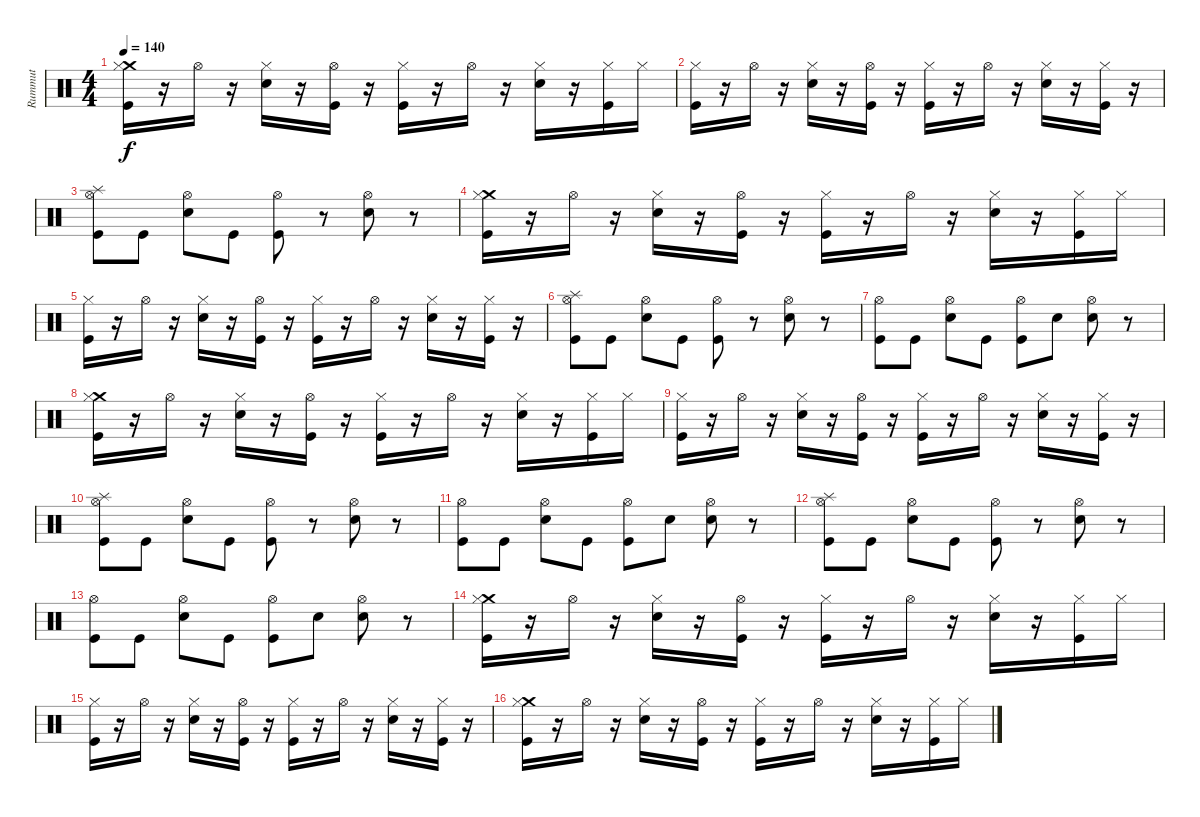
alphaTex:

\track ("Rummut" "Rummut") {instrument percussion}
\staff {score}
\articulation defaults
\ts (4 4)
\tempo 140
\clef neutral
\ks c
("Crash medium (hit)" "Hi-Hat (closed)" "Kick (hit)").16{dy f} r.16 "Hi-Hat (open)".16 r.16 ("Hi-Hat (closed)" "Snare (hit) 2").16 r.16 ("Hi-Hat (open)" "Kick (hit)").16 r.16 ("Hi-Hat (closed)" "Kick (hit)").16 r.16 "Hi-Hat (open)".16 r.16 ("Hi-Hat (closed)" "Snare (hit) 2").16 r.16 ("Hi-Hat (closed)" "Kick (hit)").16 "Hi-Hat (closed)".16 |
("Hi-Hat (closed)" "Kick (hit)").16 r.16 "Hi-Hat (open)".16 r.16 ("Hi-Hat (closed)" "Snare (hit) 2").16 r.16 ("Hi-Hat (open)" "Kick (hit)").16 r.16 ("Hi-Hat (closed)" "Kick (hit)").16 r.16 "Hi-Hat (open)".16 r.16 ("Hi-Hat (closed)" "Snare (hit) 2").16 r.16 ("Hi-Hat (closed)" "Kick (hit)").16 r.16 |
("Splash (hit)" "Hi-Hat (open)" "Kick (hit)").8 "Kick (hit)".8 ("Hi-Hat (open)" "Snare (hit) 2").8 "Kick (hit)".8 ("Hi-Hat (open)" "Kick (hit)").8 r.8 ("Hi-Hat (open)" "Snare (hit) 2").8 r.8 |
("Crash medium (hit)" "Hi-Hat (closed)" "Kick (hit)").16 r.16 "Hi-Hat (open)".16 r.16 ("Hi-Hat (closed)" "Snare (hit) 2").16 r.16 ("Hi-Hat (open)" "Kick (hit)").16 r.16 ("Hi-Hat (closed)" "Kick (hit)").16 r.16 "Hi-Hat (open)".16 r.16 ("Hi-Hat (closed)" "Snare (hit) 2").16 r.16 ("Hi-Hat (closed)" "Kick (hit)").16 "Hi-Hat (closed)".16 |
("Hi-Hat (closed)" "Kick (hit)").16 r.16 "Hi-Hat (open)".16 r.16 ("Hi-Hat (closed)" "Snare (hit) 2").16 r.16 ("Hi-Hat (open)" "Kick (hit)").16 r.16 ("Hi-Hat (closed)" "Kick (hit)").16 r.16 "Hi-Hat (open)".16 r.16 ("Hi-Hat (closed)" "Snare (hit) 2").16 r.16 ("Hi-Hat (closed)" "Kick (hit)").16 r.16 |
("Splash (hit)" "Hi-Hat (open)" "Kick (hit)").8 "Kick (hit)".8 ("Hi-Hat (open)" "Snare (hit) 2").8 "Kick (hit)".8 ("Hi-Hat (open)" "Kick (hit)").8 r.8 ("Hi-Hat (open)" "Snare (hit) 2").8 r.8 |
("Hi-Hat (open)" "Kick (hit)").8 "Kick (hit)".8 ("Hi-Hat (open)" "Snare (hit) 2").8 "Kick (hit)".8 ("Hi-Hat (open)" "Kick (hit)").8 "Snare (hit) 2".8 ("Hi-Hat (open)" "Snare (hit) 2").8 r.8 |
("Crash medium (hit)" "Hi-Hat (closed)" "Kick (hit)").16 r.16 "Hi-Hat (open)".16 r.16 ("Hi-Hat (closed)" "Snare (hit) 2").16 r.16 ("Hi-Hat (open)" "Kick (hit)").16 r.16 ("Hi-Hat (closed)" "Kick (hit)").16 r.16 "Hi-Hat (open)".16 r.16 ("Hi-Hat (closed)" "Snare (hit) 2").16 r.16 ("Hi-Hat (closed)" "Kick (hit)").16 "Hi-Hat (closed)".16 |
("Hi-Hat (closed)" "Kick (hit)").16 r.16 "Hi-Hat (open)".16 r.16 ("Hi-Hat (closed)" "Snare (hit) 2").16 r.16 ("Hi-Hat (open)" "Kick (hit)").16 r.16 ("Hi-Hat (closed)" "Kick (hit)").16 r.16 "Hi-Hat (open)".16 r.16 ("Hi-Hat (closed)" "Snare (hit) 2").16 r.16 ("Hi-Hat (closed)" "Kick (hit)").16 r.16 |
("Splash (hit)" "Hi-Hat (open)" "Kick (hit)").8 "Kick (hit)".8 ("Hi-Hat (open)" "Snare (hit) 2").8 "Kick (hit)".8 ("Hi-Hat (open)" "Kick (hit)").8 r.8 ("Hi-Hat (open)" "Snare (hit) 2").8 r.8 |
("Hi-Hat (open)" "Kick (hit)").8 "Kick (hit)".8 ("Hi-Hat (open)" "Snare (hit) 2").8 "Kick (hit)".8 ("Hi-Hat (open)" "Kick (hit)").8 "Snare (hit) 2".8 ("Hi-Hat (open)" "Snare (hit) 2").8 r.8 |
("Splash (hit)" "Hi-Hat (open)" "Kick (hit)").8 "Kick (hit)".8 ("Hi-Hat (open)" "Snare (hit) 2").8 "Kick (hit)".8 ("Hi-Hat (open)" "Kick (hit)").8 r.8 ("Hi-Hat (open)" "Snare (hit) 2").8 r.8 |
("Hi-Hat (open)" "Kick (hit)").8 "Kick (hit)".8 ("Hi-Hat (open)" "Snare (hit) 2").8 "Kick (hit)".8 ("Hi-Hat (open)" "Kick (hit)").8 "Snare (hit) 2".8 ("Hi-Hat (open)" "Snare (hit) 2").8 r.8 |
("Crash medium (hit)" "Hi-Hat (closed)" "Kick (hit)").16 r.16 "Hi-Hat (open)".16 r.16 ("Hi-Hat (closed)" "Snare (hit) 2").16 r.16 ("Hi-Hat (open)" "Kick (hit)").16 r.16 ("Hi-Hat (closed)" "Kick (hit)").16 r.16 "Hi-Hat (open)".16 r.16 ("Hi-Hat (closed)" "Snare (hit) 2").16 r.16 ("Hi-Hat (closed)" "Kick (hit)").16 "Hi-Hat (closed)".16 |
("Hi-Hat (closed)" "Kick (hit)").16 r.16 "Hi-Hat (open)".16 r.16 ("Hi-Hat (closed)" "Snare (hit) 2").16 r.16 ("Hi-Hat (open)" "Kick (hit)").16 r.16 ("Hi-Hat (closed)" "Kick (hit)").16 r.16 "Hi-Hat (open)".16 r.16 ("Hi-Hat (closed)" "Snare (hit) 2").16 r.16 ("Hi-Hat (closed)" "Kick (hit)").16 r.16 |
("Crash medium (hit)" "Hi-Hat (closed)" "Kick (hit)").16 r.16 "Hi-Hat (open)".16 r.16 ("Hi-Hat (closed)" "Snare (hit) 2").16 r.16 ("Hi-Hat (open)" "Kick (hit)").16 r.16 ("Hi-Hat (closed)" "Kick (hit)").16 r.16 "Hi-Hat (open)".16 r.16 ("Hi-Hat (closed)" "Snare (hit) 2").16 r.16 ("Hi-Hat (closed)" "Kick (hit)").16 "Hi-Hat (closed)".16
